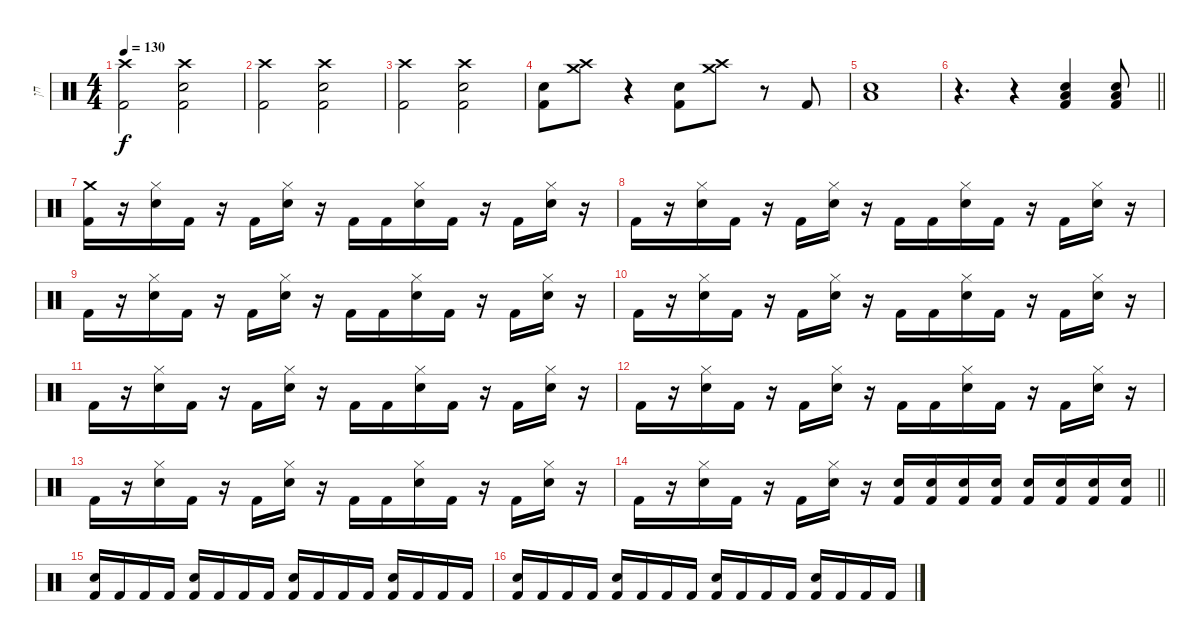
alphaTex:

\track ("חן" "חן") {instrument percussion}
\staff {score}
\articulation defaults
\ts (4 4)
\tempo 130
\clef neutral
\ks c
("Crash high (hit)" "Kick (hit) 2").2{dy f} ("Crash high (hit)" "Electric Snare (hit)" "Kick (hit) 2").2 |
("Crash high (hit)" "Kick (hit) 2").2 ("Crash high (hit)" "Electric Snare (hit)" "Kick (hit) 2").2 |
("Crash high (hit)" "Kick (hit) 2").2 ("Crash high (hit)" "Electric Snare (hit)" "Kick (hit) 2").2 |
("Electric Snare (hit)" "Kick (hit) 2").8 ("Crash high (hit)" "Crash medium (hit)").8 r.4 ("Electric Snare (hit)" "Kick (hit) 2").8 ("Crash high (hit)" "Crash medium (hit)").8 r.8 "Kick (hit) 2".8 |
("Electric Snare (hit)" "Low Tom (hit)").1 |
\barLineRight lightlight
r.4{d} r.4 ("Electric Snare (hit)" "Low Tom (hit)" "Kick (hit) 2").4 ("Electric Snare (hit)" "Low Tom (hit)" "Kick (hit) 2").8 |
("Crash medium (hit)" "Kick (hit) 2").16 r.16 ("Hi-Hat (closed)" "Electric Snare (hit)").16 "Kick (hit) 2".16 r.16 "Kick (hit) 2".16 ("Hi-Hat (closed)" "Electric Snare (hit)").16 r.16 "Kick (hit) 2".16 "Kick (hit) 2".16 ("Hi-Hat (closed)" "Electric Snare (hit)").16 "Kick (hit) 2".16 r.16 "Kick (hit) 2".16 ("Hi-Hat (closed)" "Electric Snare (hit)").16 r.16 |
"Kick (hit) 2".16 r.16 ("Hi-Hat (closed)" "Electric Snare (hit)").16 "Kick (hit) 2".16 r.16 "Kick (hit) 2".16 ("Hi-Hat (closed)" "Electric Snare (hit)").16 r.16 "Kick (hit) 2".16 "Kick (hit) 2".16 ("Hi-Hat (closed)" "Electric Snare (hit)").16 "Kick (hit) 2".16 r.16 "Kick (hit) 2".16 ("Hi-Hat (closed)" "Electric Snare (hit)").16 r.16 |
"Kick (hit) 2".16 r.16 ("Hi-Hat (closed)" "Electric Snare (hit)").16 "Kick (hit) 2".16 r.16 "Kick (hit) 2".16 ("Hi-Hat (closed)" "Electric Snare (hit)").16 r.16 "Kick (hit) 2".16 "Kick (hit) 2".16 ("Hi-Hat (closed)" "Electric Snare (hit)").16 "Kick (hit) 2".16 r.16 "Kick (hit) 2".16 ("Hi-Hat (closed)" "Electric Snare (hit)").16 r.16 |
"Kick (hit) 2".16 r.16 ("Hi-Hat (closed)" "Electric Snare (hit)").16 "Kick (hit) 2".16 r.16 "Kick (hit) 2".16 ("Hi-Hat (closed)" "Electric Snare (hit)").16 r.16 "Kick (hit) 2".16 "Kick (hit) 2".16 ("Hi-Hat (closed)" "Electric Snare (hit)").16 "Kick (hit) 2".16 r.16 "Kick (hit) 2".16 ("Hi-Hat (closed)" "Electric Snare (hit)").16 r.16 |
"Kick (hit) 2".16 r.16 ("Hi-Hat (closed)" "Electric Snare (hit)").16 "Kick (hit) 2".16 r.16 "Kick (hit) 2".16 ("Hi-Hat (closed)" "Electric Snare (hit)").16 r.16 "Kick (hit) 2".16 "Kick (hit) 2".16 ("Hi-Hat (closed)" "Electric Snare (hit)").16 "Kick (hit) 2".16 r.16 "Kick (hit) 2".16 ("Hi-Hat (closed)" "Electric Snare (hit)").16 r.16 |
"Kick (hit) 2".16 r.16 ("Hi-Hat (closed)" "Electric Snare (hit)").16 "Kick (hit) 2".16 r.16 "Kick (hit) 2".16 ("Hi-Hat (closed)" "Electric Snare (hit)").16 r.16 "Kick (hit) 2".16 "Kick (hit) 2".16 ("Hi-Hat (closed)" "Electric Snare (hit)").16 "Kick (hit) 2".16 r.16 "Kick (hit) 2".16 ("Hi-Hat (closed)" "Electric Snare (hit)").16 r.16 |
"Kick (hit) 2".16 r.16 ("Hi-Hat (closed)" "Electric Snare (hit)").16 "Kick (hit) 2".16 r.16 "Kick (hit) 2".16 ("Hi-Hat (closed)" "Electric Snare (hit)").16 r.16 "Kick (hit) 2".16 "Kick (hit) 2".16 ("Hi-Hat (closed)" "Electric Snare (hit)").16 "Kick (hit) 2".16 r.16 "Kick (hit) 2".16 ("Hi-Hat (closed)" "Electric Snare (hit)").16 r.16 |
\barLineRight lightlight "Kick (hit) 2".16
r.16 ("Hi-Hat (closed)" "Electric Snare (hit)").16 "Kick (hit) 2".16 r.16 "Kick (hit) 2".16 ("Hi-Hat (closed)" "Electric Snare (hit)").16 r.16 ("Electric Snare (hit)" "Kick (hit) 2").16 ("Electric Snare (hit)" "Kick (hit) 2").16 ("Electric Snare (hit)" "Kick (hit) 2").16 ("Electric Snare (hit)" "Kick (hit) 2").16 ("Electric Snare (hit)" "Kick (hit) 2").16 ("Electric Snare (hit)" "Kick (hit) 2").16 ("Electric Snare (hit)" "Kick (hit) 2").16 ("Electric Snare (hit)" "Kick (hit) 2").16 |
("Electric Snare (hit)" "Kick (hit) 2").16 "Kick (hit) 2".16 "Kick (hit) 2".16 "Kick (hit) 2".16 ("Electric Snare (hit)" "Kick (hit) 2").16 "Kick (hit) 2".16 "Kick (hit) 2".16 "Kick (hit) 2".16 ("Electric Snare (hit)" "Kick (hit) 2").16 "Kick (hit) 2".16 "Kick (hit) 2".16 "Kick (hit) 2".16 ("Electric Snare (hit)" "Kick (hit) 2").16 "Kick (hit) 2".16 "Kick (hit) 2".16 "Kick (hit) 2".16 |
("Electric Snare (hit)" "Kick (hit) 2").16 "Kick (hit) 2".16 "Kick (hit) 2".16 "Kick (hit) 2".16 ("Electric Snare (hit)" "Kick (hit) 2").16 "Kick (hit) 2".16 "Kick (hit) 2".16 "Kick (hit) 2".16 ("Electric Snare (hit)" "Kick (hit) 2").16 "Kick (hit) 2".16 "Kick (hit) 2".16 "Kick (hit) 2".16 ("Electric Snare (hit)" "Kick (hit) 2").16 "Kick (hit) 2".16 "Kick (hit) 2".16 "Kick (hit) 2".16
